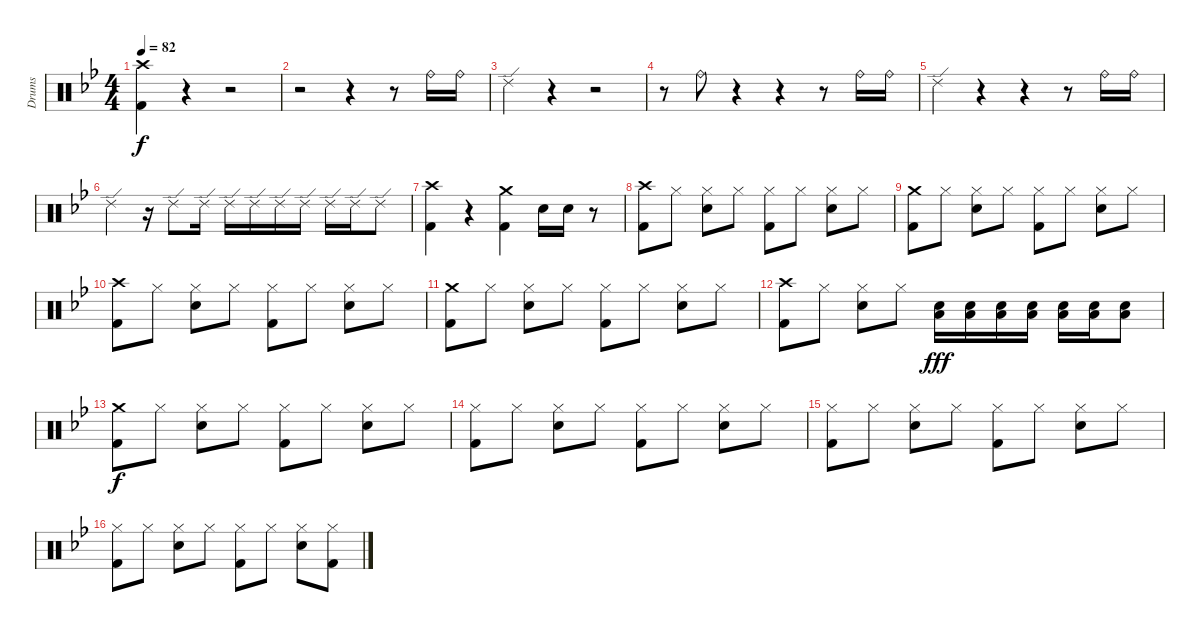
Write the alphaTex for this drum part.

\track ("Drums" "Drums") {instrument percussion}
\staff {score}
\articulation defaults
\ts (4 4)
\tempo 82
\clef neutral
\ks bb
("Crash high (hit)" "Kick (hit) 2").4{dy f} r.4 r.2 |
r.2 r.4 r.8 "Ride (bell)".16 "Ride (bell)".16 |
"Ride (edge) 2".4 r.4 r.2 |
r.8 "Ride (bell)".8 r.4 r.4 r.8 "Ride (bell)".16 "Ride (bell)".16 |
"Ride (edge) 2".4 r.4 r.4 r.8 "Ride (bell)".16 "Ride (bell)".16 |
"Ride (edge) 2".4 r.16 "Ride (edge) 2".8 "Ride (edge) 2".16 "Ride (edge) 2".16 "Ride (edge) 2".16 "Ride (edge) 2".16 "Ride (edge) 2".16 "Ride (edge) 2".16 "Ride (edge) 2".16 "Ride (edge) 2".8 |
("Crash high (hit)" "Kick (hit) 2").4 r.4 ("Crash medium (hit)" "Kick (hit) 2").4 "Snare (hit) 2".16 "Snare (hit) 2".16 r.8 |
("Crash high (hit)" "Kick (hit) 2").8 "Hi-Hat (closed)".8 ("Hi-Hat (closed)" "Snare (hit) 2").8 "Hi-Hat (closed)".8 ("Hi-Hat (closed)" "Kick (hit) 2").8 "Hi-Hat (closed)".8 ("Hi-Hat (closed)" "Snare (hit) 2").8 "Hi-Hat (closed)".8 |
("Crash medium (hit)" "Kick (hit) 2").8 "Hi-Hat (closed)".8 ("Hi-Hat (closed)" "Snare (hit) 2").8 "Hi-Hat (closed)".8 ("Hi-Hat (closed)" "Kick (hit) 2").8 "Hi-Hat (closed)".8 ("Hi-Hat (closed)" "Snare (hit) 2").8 "Hi-Hat (closed)".8 |
("Crash high (hit)" "Kick (hit) 2").8 "Hi-Hat (closed)".8 ("Hi-Hat (closed)" "Snare (hit) 2").8 "Hi-Hat (closed)".8 ("Hi-Hat (closed)" "Kick (hit) 2").8 "Hi-Hat (closed)".8 ("Hi-Hat (closed)" "Snare (hit) 2").8 "Hi-Hat (closed)".8 |
("Crash medium (hit)" "Kick (hit) 2").8 "Hi-Hat (closed)".8 ("Hi-Hat (closed)" "Snare (hit) 2").8 "Hi-Hat (closed)".8 ("Hi-Hat (closed)" "Kick (hit) 2").8 "Hi-Hat (closed)".8 ("Hi-Hat (closed)" "Snare (hit) 2").8 "Hi-Hat (closed)".8 |
("Crash high (hit)" "Kick (hit) 2").8 "Hi-Hat (closed)".8 ("Hi-Hat (closed)" "Snare (hit) 2").8 "Hi-Hat (closed)".8 ("Snare (hit) 2" "Low Tom (hit)").16{dy fff} ("Snare (hit) 2" "Low Tom (hit)").16 ("Snare (hit) 2" "Low Tom (hit)").16 ("Snare (hit) 2" "Low Tom (hit)").16 ("Snare (hit) 2" "Low Tom (hit)").16 ("Snare (hit) 2" "Low Tom (hit)").16 ("Snare (hit) 2" "Low Tom (hit)").8 |
("Crash medium (hit)" "Kick (hit) 2").8{dy f} "Hi-Hat (closed)".8 ("Hi-Hat (closed)" "Snare (hit) 2").8 "Hi-Hat (closed)".8 ("Hi-Hat (closed)" "Kick (hit) 2").8 "Hi-Hat (closed)".8 ("Hi-Hat (closed)" "Snare (hit) 2").8 "Hi-Hat (closed)".8 |
("Hi-Hat (closed)" "Kick (hit) 2").8 "Hi-Hat (closed)".8 ("Hi-Hat (closed)" "Snare (hit) 2").8 "Hi-Hat (closed)".8 ("Hi-Hat (closed)" "Kick (hit) 2").8 "Hi-Hat (closed)".8 ("Hi-Hat (closed)" "Snare (hit) 2").8 "Hi-Hat (closed)".8 |
("Hi-Hat (closed)" "Kick (hit) 2").8 "Hi-Hat (closed)".8 ("Hi-Hat (closed)" "Snare (hit) 2").8 "Hi-Hat (closed)".8 ("Hi-Hat (closed)" "Kick (hit) 2").8 "Hi-Hat (closed)".8 ("Hi-Hat (closed)" "Snare (hit) 2").8 "Hi-Hat (closed)".8 |
("Hi-Hat (closed)" "Kick (hit) 2").8 "Hi-Hat (closed)".8 ("Hi-Hat (closed)" "Snare (hit) 2").8 "Hi-Hat (closed)".8 ("Hi-Hat (closed)" "Kick (hit) 2").8 "Hi-Hat (closed)".8 ("Hi-Hat (closed)" "Snare (hit) 2").8 ("Hi-Hat (closed)" "Kick (hit) 2").8
